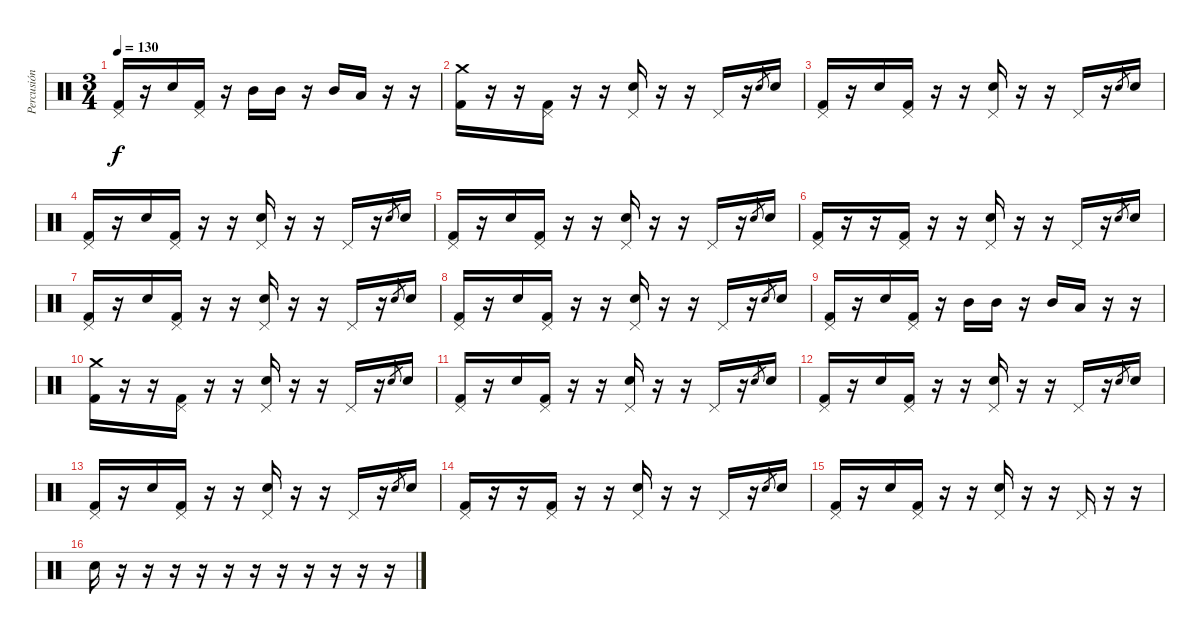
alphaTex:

\track ("Percusión" "Percusión") {instrument percussion}
\staff {score}
\articulation defaults
\ts (3 4)
\tempo 130
\clef neutral
\ks c
("Pedal Hi-Hat (hit)" "Kick (hit) 2").16{dy f} r.16 "Electric Snare (hit)".16 ("Pedal Hi-Hat (hit)" "Kick (hit) 2").16 r.16 "Mid Tom (hit)".16 "Mid Tom (hit)".16 r.16 "Mid Tom (hit)".16 "Low Tom (hit)".16 r.16 r.16 |
("Crash medium (hit)" "Kick (hit) 2").16 r.16 r.16 ("Pedal Hi-Hat (hit)" "Kick (hit) 2").16 r.16 r.16 ("Pedal Hi-Hat (hit)" "Electric Snare (hit)").16 r.16 r.16 "Pedal Hi-Hat (hit)".16 r.16 "Electric Snare (hit)".8{gr} "Electric Snare (hit)".16 |
("Pedal Hi-Hat (hit)" "Kick (hit) 2").16 r.16 "Electric Snare (hit)".16 ("Pedal Hi-Hat (hit)" "Kick (hit) 2").16 r.16 r.16 ("Pedal Hi-Hat (hit)" "Electric Snare (hit)").16 r.16 r.16 "Pedal Hi-Hat (hit)".16 r.16 "Electric Snare (hit)".8{gr} "Electric Snare (hit)".16 |
("Pedal Hi-Hat (hit)" "Kick (hit) 2").16 r.16 "Electric Snare (hit)".16 ("Pedal Hi-Hat (hit)" "Kick (hit) 2").16 r.16 r.16 ("Pedal Hi-Hat (hit)" "Electric Snare (hit)").16 r.16 r.16 "Pedal Hi-Hat (hit)".16 r.16 "Electric Snare (hit)".8{gr} "Electric Snare (hit)".16 |
("Pedal Hi-Hat (hit)" "Kick (hit) 2").16 r.16 "Electric Snare (hit)".16 ("Pedal Hi-Hat (hit)" "Kick (hit) 2").16 r.16 r.16 ("Pedal Hi-Hat (hit)" "Electric Snare (hit)").16 r.16 r.16 "Pedal Hi-Hat (hit)".16 r.16 "Electric Snare (hit)".8{gr} "Electric Snare (hit)".16 |
("Pedal Hi-Hat (hit)" "Kick (hit) 2").16 r.16 r.16 ("Pedal Hi-Hat (hit)" "Kick (hit) 2").16 r.16 r.16 ("Pedal Hi-Hat (hit)" "Electric Snare (hit)").16 r.16 r.16 "Pedal Hi-Hat (hit)".16 r.16 "Electric Snare (hit)".8{gr} "Electric Snare (hit)".16 |
("Pedal Hi-Hat (hit)" "Kick (hit) 2").16 r.16 "Electric Snare (hit)".16 ("Pedal Hi-Hat (hit)" "Kick (hit) 2").16 r.16 r.16 ("Pedal Hi-Hat (hit)" "Electric Snare (hit)").16 r.16 r.16 "Pedal Hi-Hat (hit)".16 r.16 "Electric Snare (hit)".8{gr} "Electric Snare (hit)".16 |
("Pedal Hi-Hat (hit)" "Kick (hit) 2").16 r.16 "Electric Snare (hit)".16 ("Pedal Hi-Hat (hit)" "Kick (hit) 2").16 r.16 r.16 ("Pedal Hi-Hat (hit)" "Electric Snare (hit)").16 r.16 r.16 "Pedal Hi-Hat (hit)".16 r.16 "Electric Snare (hit)".8{gr} "Electric Snare (hit)".16 |
("Pedal Hi-Hat (hit)" "Kick (hit) 2").16 r.16 "Electric Snare (hit)".16 ("Pedal Hi-Hat (hit)" "Kick (hit) 2").16 r.16 "Mid Tom (hit)".16 "Mid Tom (hit)".16 r.16 "Mid Tom (hit)".16 "Low Tom (hit)".16 r.16 r.16 |
("Crash medium (hit)" "Kick (hit) 2").16 r.16 r.16 ("Pedal Hi-Hat (hit)" "Kick (hit) 2").16 r.16 r.16 ("Pedal Hi-Hat (hit)" "Electric Snare (hit)").16 r.16 r.16 "Pedal Hi-Hat (hit)".16 r.16 "Electric Snare (hit)".8{gr} "Electric Snare (hit)".16 |
("Pedal Hi-Hat (hit)" "Kick (hit) 2").16 r.16 "Electric Snare (hit)".16 ("Pedal Hi-Hat (hit)" "Kick (hit) 2").16 r.16 r.16 ("Pedal Hi-Hat (hit)" "Electric Snare (hit)").16 r.16 r.16 "Pedal Hi-Hat (hit)".16 r.16 "Electric Snare (hit)".8{gr} "Electric Snare (hit)".16 |
("Pedal Hi-Hat (hit)" "Kick (hit) 2").16 r.16 "Electric Snare (hit)".16 ("Pedal Hi-Hat (hit)" "Kick (hit) 2").16 r.16 r.16 ("Pedal Hi-Hat (hit)" "Electric Snare (hit)").16 r.16 r.16 "Pedal Hi-Hat (hit)".16 r.16 "Electric Snare (hit)".8{gr} "Electric Snare (hit)".16 |
("Pedal Hi-Hat (hit)" "Kick (hit) 2").16 r.16 "Electric Snare (hit)".16 ("Pedal Hi-Hat (hit)" "Kick (hit) 2").16 r.16 r.16 ("Pedal Hi-Hat (hit)" "Electric Snare (hit)").16 r.16 r.16 "Pedal Hi-Hat (hit)".16 r.16 "Electric Snare (hit)".8{gr} "Electric Snare (hit)".16 |
("Pedal Hi-Hat (hit)" "Kick (hit) 2").16 r.16 r.16 ("Pedal Hi-Hat (hit)" "Kick (hit) 2").16 r.16 r.16 ("Pedal Hi-Hat (hit)" "Electric Snare (hit)").16 r.16 r.16 "Pedal Hi-Hat (hit)".16 r.16 "Electric Snare (hit)".8{gr} "Electric Snare (hit)".16 |
("Pedal Hi-Hat (hit)" "Kick (hit) 2").16 r.16 "Electric Snare (hit)".16 ("Pedal Hi-Hat (hit)" "Kick (hit) 2").16 r.16 r.16 ("Pedal Hi-Hat (hit)" "Electric Snare (hit)").16 r.16 r.16 "Pedal Hi-Hat (hit)".16 r.16 r.16 |
"Electric Snare (hit)".16 r.16 r.16 r.16 r.16 r.16 r.16 r.16 r.16 r.16 r.16 r.16
